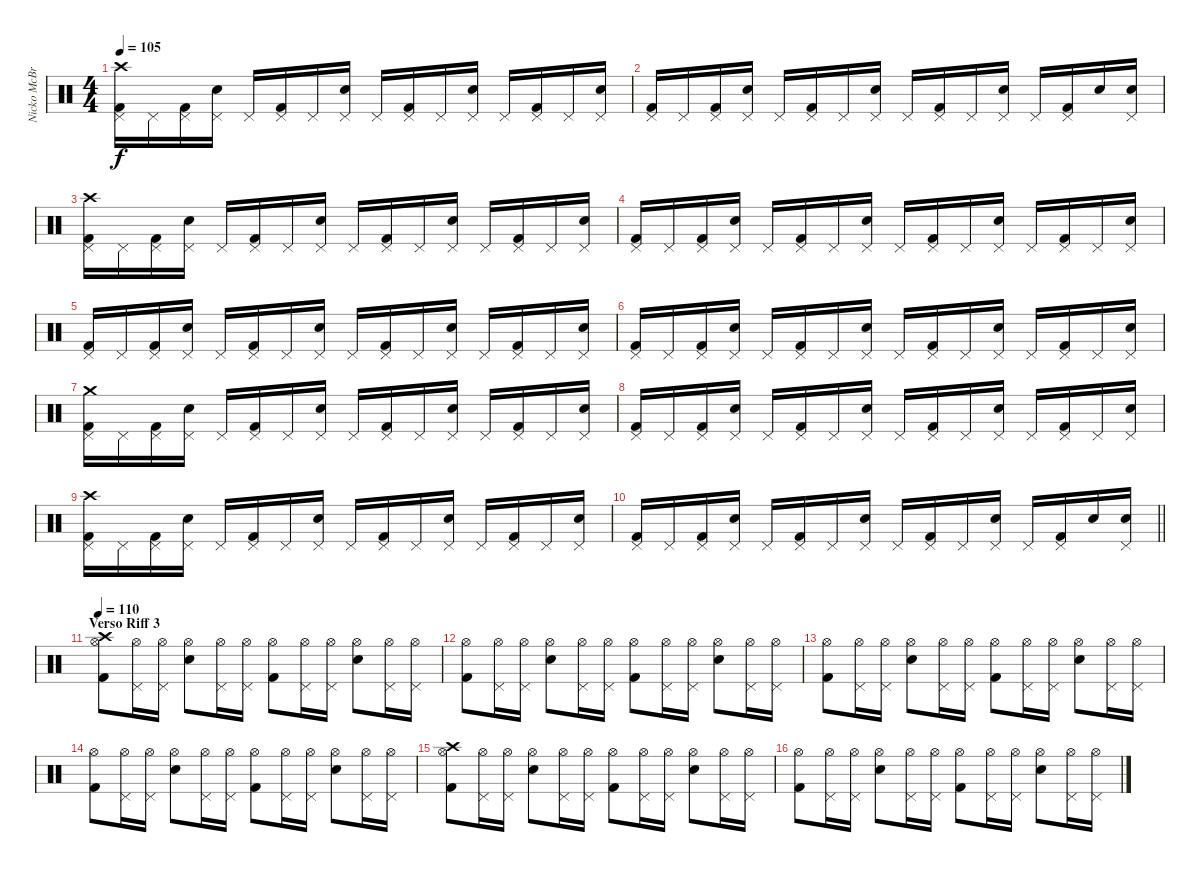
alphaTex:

\track ("Nicko McBrain" "Nicko McBr") {instrument percussion}
\staff {score}
\articulation defaults
\ts (4 4)
\tempo 105
\clef neutral
\ks c
("Kick (hit) 2" "Pedal Hi-Hat (hit)" "Crash high (hit)").16{dy f} "Pedal Hi-Hat (hit)".16 ("Kick (hit) 2" "Pedal Hi-Hat (hit)").16 ("Snare (hit) 2" "Pedal Hi-Hat (hit)").16 "Pedal Hi-Hat (hit)".16 ("Kick (hit) 2" "Pedal Hi-Hat (hit)").16 "Pedal Hi-Hat (hit)".16 ("Snare (hit) 2" "Pedal Hi-Hat (hit)").16 "Pedal Hi-Hat (hit)".16 ("Kick (hit) 2" "Pedal Hi-Hat (hit)").16 "Pedal Hi-Hat (hit)".16 ("Snare (hit) 2" "Pedal Hi-Hat (hit)").16 "Pedal Hi-Hat (hit)".16 ("Kick (hit) 2" "Pedal Hi-Hat (hit)").16 "Pedal Hi-Hat (hit)".16 ("Snare (hit) 2" "Pedal Hi-Hat (hit)").16 |
("Kick (hit) 2" "Pedal Hi-Hat (hit)").16 "Pedal Hi-Hat (hit)".16 ("Kick (hit) 2" "Pedal Hi-Hat (hit)").16 ("Snare (hit) 2" "Pedal Hi-Hat (hit)").16 "Pedal Hi-Hat (hit)".16 ("Kick (hit) 2" "Pedal Hi-Hat (hit)").16 "Pedal Hi-Hat (hit)".16 ("Snare (hit) 2" "Pedal Hi-Hat (hit)").16 "Pedal Hi-Hat (hit)".16 ("Kick (hit) 2" "Pedal Hi-Hat (hit)").16 "Pedal Hi-Hat (hit)".16 ("Snare (hit) 2" "Pedal Hi-Hat (hit)").16 "Pedal Hi-Hat (hit)".16 ("Kick (hit) 2" "Pedal Hi-Hat (hit)").16 "Snare (hit) 2".16 ("Snare (hit) 2" "Pedal Hi-Hat (hit)").16 |
("Kick (hit) 2" "Pedal Hi-Hat (hit)" "Crash high (hit)").16 "Pedal Hi-Hat (hit)".16 ("Kick (hit) 2" "Pedal Hi-Hat (hit)").16 ("Snare (hit) 2" "Pedal Hi-Hat (hit)").16 "Pedal Hi-Hat (hit)".16 ("Kick (hit) 2" "Pedal Hi-Hat (hit)").16 "Pedal Hi-Hat (hit)".16 ("Snare (hit) 2" "Pedal Hi-Hat (hit)").16 "Pedal Hi-Hat (hit)".16 ("Kick (hit) 2" "Pedal Hi-Hat (hit)").16 "Pedal Hi-Hat (hit)".16 ("Snare (hit) 2" "Pedal Hi-Hat (hit)").16 "Pedal Hi-Hat (hit)".16 ("Kick (hit) 2" "Pedal Hi-Hat (hit)").16 "Pedal Hi-Hat (hit)".16 ("Snare (hit) 2" "Pedal Hi-Hat (hit)").16 |
("Kick (hit) 2" "Pedal Hi-Hat (hit)").16 "Pedal Hi-Hat (hit)".16 ("Kick (hit) 2" "Pedal Hi-Hat (hit)").16 ("Snare (hit) 2" "Pedal Hi-Hat (hit)").16 "Pedal Hi-Hat (hit)".16 ("Kick (hit) 2" "Pedal Hi-Hat (hit)").16 "Pedal Hi-Hat (hit)".16 ("Snare (hit) 2" "Pedal Hi-Hat (hit)").16 "Pedal Hi-Hat (hit)".16 ("Kick (hit) 2" "Pedal Hi-Hat (hit)").16 "Pedal Hi-Hat (hit)".16 ("Snare (hit) 2" "Pedal Hi-Hat (hit)").16 "Pedal Hi-Hat (hit)".16 ("Kick (hit) 2" "Pedal Hi-Hat (hit)").16 "Pedal Hi-Hat (hit)".16 ("Snare (hit) 2" "Pedal Hi-Hat (hit)").16 |
("Kick (hit) 2" "Pedal Hi-Hat (hit)").16 "Pedal Hi-Hat (hit)".16 ("Kick (hit) 2" "Pedal Hi-Hat (hit)").16 ("Snare (hit) 2" "Pedal Hi-Hat (hit)").16 "Pedal Hi-Hat (hit)".16 ("Kick (hit) 2" "Pedal Hi-Hat (hit)").16 "Pedal Hi-Hat (hit)".16 ("Snare (hit) 2" "Pedal Hi-Hat (hit)").16 "Pedal Hi-Hat (hit)".16 ("Kick (hit) 2" "Pedal Hi-Hat (hit)").16 "Pedal Hi-Hat (hit)".16 ("Snare (hit) 2" "Pedal Hi-Hat (hit)").16 "Pedal Hi-Hat (hit)".16 ("Kick (hit) 2" "Pedal Hi-Hat (hit)").16 "Pedal Hi-Hat (hit)".16 ("Snare (hit) 2" "Pedal Hi-Hat (hit)").16 |
("Kick (hit) 2" "Pedal Hi-Hat (hit)").16 "Pedal Hi-Hat (hit)".16 ("Kick (hit) 2" "Pedal Hi-Hat (hit)").16 ("Snare (hit) 2" "Pedal Hi-Hat (hit)").16 "Pedal Hi-Hat (hit)".16 ("Kick (hit) 2" "Pedal Hi-Hat (hit)").16 "Pedal Hi-Hat (hit)".16 ("Snare (hit) 2" "Pedal Hi-Hat (hit)").16 "Pedal Hi-Hat (hit)".16 ("Kick (hit) 2" "Pedal Hi-Hat (hit)").16 "Pedal Hi-Hat (hit)".16 ("Snare (hit) 2" "Pedal Hi-Hat (hit)").16 "Pedal Hi-Hat (hit)".16 ("Kick (hit) 2" "Pedal Hi-Hat (hit)").16 "Pedal Hi-Hat (hit)".16 ("Snare (hit) 2" "Pedal Hi-Hat (hit)").16 |
("Kick (hit) 2" "Pedal Hi-Hat (hit)" "Crash medium (hit)").16 "Pedal Hi-Hat (hit)".16 ("Kick (hit) 2" "Pedal Hi-Hat (hit)").16 ("Snare (hit) 2" "Pedal Hi-Hat (hit)").16 "Pedal Hi-Hat (hit)".16 ("Kick (hit) 2" "Pedal Hi-Hat (hit)").16 "Pedal Hi-Hat (hit)".16 ("Snare (hit) 2" "Pedal Hi-Hat (hit)").16 "Pedal Hi-Hat (hit)".16 ("Kick (hit) 2" "Pedal Hi-Hat (hit)").16 "Pedal Hi-Hat (hit)".16 ("Snare (hit) 2" "Pedal Hi-Hat (hit)").16 "Pedal Hi-Hat (hit)".16 ("Kick (hit) 2" "Pedal Hi-Hat (hit)").16 "Pedal Hi-Hat (hit)".16 ("Snare (hit) 2" "Pedal Hi-Hat (hit)").16 |
("Kick (hit) 2" "Pedal Hi-Hat (hit)").16 "Pedal Hi-Hat (hit)".16 ("Kick (hit) 2" "Pedal Hi-Hat (hit)").16 ("Snare (hit) 2" "Pedal Hi-Hat (hit)").16 "Pedal Hi-Hat (hit)".16 ("Kick (hit) 2" "Pedal Hi-Hat (hit)").16 "Pedal Hi-Hat (hit)".16 ("Snare (hit) 2" "Pedal Hi-Hat (hit)").16 "Pedal Hi-Hat (hit)".16 ("Kick (hit) 2" "Pedal Hi-Hat (hit)").16 "Pedal Hi-Hat (hit)".16 ("Snare (hit) 2" "Pedal Hi-Hat (hit)").16 "Pedal Hi-Hat (hit)".16 ("Kick (hit) 2" "Pedal Hi-Hat (hit)").16 "Pedal Hi-Hat (hit)".16 ("Snare (hit) 2" "Pedal Hi-Hat (hit)").16 |
("Kick (hit) 2" "Pedal Hi-Hat (hit)" "Crash high (hit)").16 "Pedal Hi-Hat (hit)".16 ("Kick (hit) 2" "Pedal Hi-Hat (hit)").16 ("Snare (hit) 2" "Pedal Hi-Hat (hit)").16 "Pedal Hi-Hat (hit)".16 ("Kick (hit) 2" "Pedal Hi-Hat (hit)").16 "Pedal Hi-Hat (hit)".16 ("Snare (hit) 2" "Pedal Hi-Hat (hit)").16 "Pedal Hi-Hat (hit)".16 ("Kick (hit) 2" "Pedal Hi-Hat (hit)").16 "Pedal Hi-Hat (hit)".16 ("Snare (hit) 2" "Pedal Hi-Hat (hit)").16 "Pedal Hi-Hat (hit)".16 ("Kick (hit) 2" "Pedal Hi-Hat (hit)").16 "Pedal Hi-Hat (hit)".16 ("Snare (hit) 2" "Pedal Hi-Hat (hit)").16 |
\barLineRight lightlight
("Kick (hit) 2" "Pedal Hi-Hat (hit)").16 "Pedal Hi-Hat (hit)".16 ("Kick (hit) 2" "Pedal Hi-Hat (hit)").16 ("Snare (hit) 2" "Pedal Hi-Hat (hit)").16 "Pedal Hi-Hat (hit)".16 ("Kick (hit) 2" "Pedal Hi-Hat (hit)").16 "Pedal Hi-Hat (hit)".16 ("Snare (hit) 2" "Pedal Hi-Hat (hit)").16 "Pedal Hi-Hat (hit)".16 ("Kick (hit) 2" "Pedal Hi-Hat (hit)").16 "Pedal Hi-Hat (hit)".16 ("Snare (hit) 2" "Pedal Hi-Hat (hit)").16 "Pedal Hi-Hat (hit)".16 ("Kick (hit) 2" "Pedal Hi-Hat (hit)").16 "Snare (hit) 2".16 ("Snare (hit) 2" "Pedal Hi-Hat (hit)").16 |
\section ("" "Verso Riff 3")
\tempo 110
("Kick (hit) 2" "Hi-Hat (open)" "Crash high (hit)").8 ("Pedal Hi-Hat (hit)" "Hi-Hat (open)").16 ("Pedal Hi-Hat (hit)" "Hi-Hat (open)").16 ("Snare (hit) 2" "Hi-Hat (open)").8 ("Pedal Hi-Hat (hit)" "Hi-Hat (open)").16 ("Pedal Hi-Hat (hit)" "Hi-Hat (open)").16 ("Kick (hit) 2" "Hi-Hat (open)").8 ("Pedal Hi-Hat (hit)" "Hi-Hat (open)").16 ("Pedal Hi-Hat (hit)" "Hi-Hat (open)").16 ("Snare (hit) 2" "Hi-Hat (open)").8 ("Pedal Hi-Hat (hit)" "Hi-Hat (open)").16 ("Pedal Hi-Hat (hit)" "Hi-Hat (open)").16 |
("Kick (hit) 2" "Hi-Hat (open)").8 ("Pedal Hi-Hat (hit)" "Hi-Hat (open)").16 ("Pedal Hi-Hat (hit)" "Hi-Hat (open)").16 ("Snare (hit) 2" "Hi-Hat (open)").8 ("Pedal Hi-Hat (hit)" "Hi-Hat (open)").16 ("Pedal Hi-Hat (hit)" "Hi-Hat (open)").16 ("Kick (hit) 2" "Hi-Hat (open)").8 ("Pedal Hi-Hat (hit)" "Hi-Hat (open)").16 ("Pedal Hi-Hat (hit)" "Hi-Hat (open)").16 ("Snare (hit) 2" "Hi-Hat (open)").8 ("Pedal Hi-Hat (hit)" "Hi-Hat (open)").16 ("Pedal Hi-Hat (hit)" "Hi-Hat (open)").16 |
("Kick (hit) 2" "Hi-Hat (open)").8 ("Pedal Hi-Hat (hit)" "Hi-Hat (open)").16 ("Pedal Hi-Hat (hit)" "Hi-Hat (open)").16 ("Snare (hit) 2" "Hi-Hat (open)").8 ("Pedal Hi-Hat (hit)" "Hi-Hat (open)").16 ("Pedal Hi-Hat (hit)" "Hi-Hat (open)").16 ("Kick (hit) 2" "Hi-Hat (open)").8 ("Pedal Hi-Hat (hit)" "Hi-Hat (open)").16 ("Pedal Hi-Hat (hit)" "Hi-Hat (open)").16 ("Snare (hit) 2" "Hi-Hat (open)").8 ("Pedal Hi-Hat (hit)" "Hi-Hat (open)").16 ("Pedal Hi-Hat (hit)" "Hi-Hat (open)").16 |
("Kick (hit) 2" "Hi-Hat (open)").8 ("Pedal Hi-Hat (hit)" "Hi-Hat (open)").16 ("Pedal Hi-Hat (hit)" "Hi-Hat (open)").16 ("Snare (hit) 2" "Hi-Hat (open)").8 ("Pedal Hi-Hat (hit)" "Hi-Hat (open)").16 ("Pedal Hi-Hat (hit)" "Hi-Hat (open)").16 ("Kick (hit) 2" "Hi-Hat (open)").8 ("Pedal Hi-Hat (hit)" "Hi-Hat (open)").16 ("Pedal Hi-Hat (hit)" "Hi-Hat (open)").16 ("Snare (hit) 2" "Hi-Hat (open)").8 ("Pedal Hi-Hat (hit)" "Hi-Hat (open)").16 ("Pedal Hi-Hat (hit)" "Hi-Hat (open)").16 |
("Kick (hit) 2" "Hi-Hat (open)" "Crash high (hit)").8 ("Pedal Hi-Hat (hit)" "Hi-Hat (open)").16 ("Pedal Hi-Hat (hit)" "Hi-Hat (open)").16 ("Snare (hit) 2" "Hi-Hat (open)").8 ("Pedal Hi-Hat (hit)" "Hi-Hat (open)").16 ("Pedal Hi-Hat (hit)" "Hi-Hat (open)").16 ("Kick (hit) 2" "Hi-Hat (open)").8 ("Pedal Hi-Hat (hit)" "Hi-Hat (open)").16 ("Pedal Hi-Hat (hit)" "Hi-Hat (open)").16 ("Snare (hit) 2" "Hi-Hat (open)").8 ("Pedal Hi-Hat (hit)" "Hi-Hat (open)").16 ("Pedal Hi-Hat (hit)" "Hi-Hat (open)").16 |
("Kick (hit) 2" "Hi-Hat (open)").8 ("Pedal Hi-Hat (hit)" "Hi-Hat (open)").16 ("Pedal Hi-Hat (hit)" "Hi-Hat (open)").16 ("Snare (hit) 2" "Hi-Hat (open)").8 ("Pedal Hi-Hat (hit)" "Hi-Hat (open)").16 ("Pedal Hi-Hat (hit)" "Hi-Hat (open)").16 ("Kick (hit) 2" "Hi-Hat (open)").8 ("Pedal Hi-Hat (hit)" "Hi-Hat (open)").16 ("Pedal Hi-Hat (hit)" "Hi-Hat (open)").16 ("Snare (hit) 2" "Hi-Hat (open)").8 ("Pedal Hi-Hat (hit)" "Hi-Hat (open)").16 ("Pedal Hi-Hat (hit)" "Hi-Hat (open)").16
